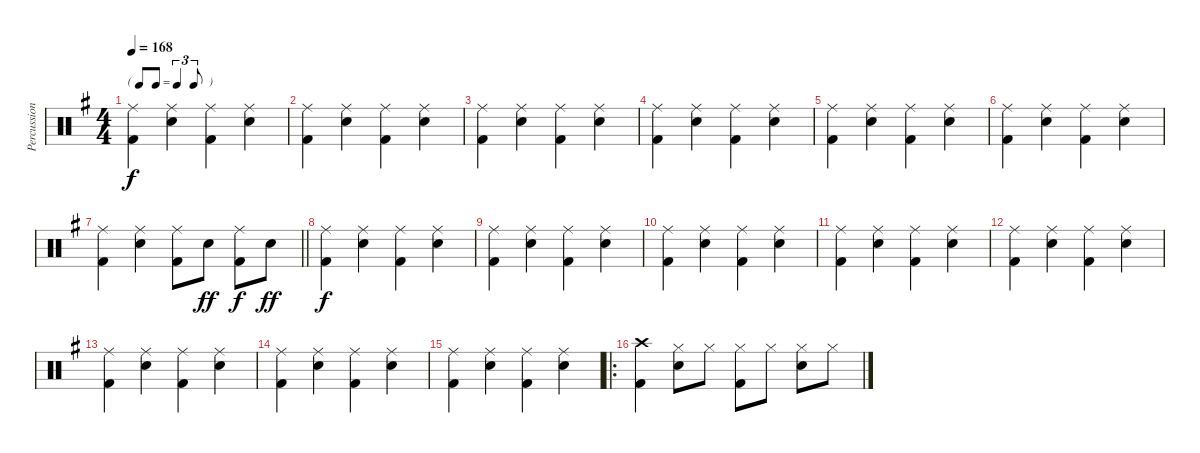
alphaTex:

\track ("Percussion" "Percussion") {instrument percussion}
\staff {score}
\articulation defaults
\ts (4 4)
\tf triplet8th
\tempo 168
\clef neutral
\ks g
("Ride (middle)" "Kick (hit) 2").4{dy f} ("Ride (middle)" "Snare (hit) 2").4 ("Ride (middle)" "Kick (hit) 2").4 ("Ride (middle)" "Snare (hit) 2").4 |
("Ride (middle)" "Kick (hit) 2").4 ("Ride (middle)" "Snare (hit) 2").4 ("Ride (middle)" "Kick (hit) 2").4 ("Ride (middle)" "Snare (hit) 2").4 |
("Ride (middle)" "Kick (hit) 2").4 ("Ride (middle)" "Snare (hit) 2").4 ("Ride (middle)" "Kick (hit) 2").4 ("Ride (middle)" "Snare (hit) 2").4 |
("Ride (middle)" "Kick (hit) 2").4 ("Ride (middle)" "Snare (hit) 2").4 ("Ride (middle)" "Kick (hit) 2").4 ("Ride (middle)" "Snare (hit) 2").4 |
("Ride (middle)" "Kick (hit) 2").4 ("Ride (middle)" "Snare (hit) 2").4 ("Ride (middle)" "Kick (hit) 2").4 ("Ride (middle)" "Snare (hit) 2").4 |
("Ride (middle)" "Kick (hit) 2").4 ("Ride (middle)" "Snare (hit) 2").4 ("Ride (middle)" "Kick (hit) 2").4 ("Ride (middle)" "Snare (hit) 2").4 |
\barLineRight lightlight
("Ride (middle)" "Kick (hit) 2").4 ("Ride (middle)" "Snare (hit) 2").4 ("Ride (middle)" "Kick (hit) 2").8 "Snare (hit) 2".8{dy ff} ("Ride (middle)" "Kick (hit) 2").8{dy f} "Snare (hit) 2".8{dy ff} |
("Ride (middle)" "Kick (hit) 2").4{dy f} ("Ride (middle)" "Snare (hit) 2").4 ("Ride (middle)" "Kick (hit) 2").4 ("Ride (middle)" "Snare (hit) 2").4 |
("Ride (middle)" "Kick (hit) 2").4 ("Ride (middle)" "Snare (hit) 2").4 ("Ride (middle)" "Kick (hit) 2").4 ("Ride (middle)" "Snare (hit) 2").4 |
("Ride (middle)" "Kick (hit) 2").4 ("Ride (middle)" "Snare (hit) 2").4 ("Ride (middle)" "Kick (hit) 2").4 ("Ride (middle)" "Snare (hit) 2").4 |
("Ride (middle)" "Kick (hit) 2").4 ("Ride (middle)" "Snare (hit) 2").4 ("Ride (middle)" "Kick (hit) 2").4 ("Ride (middle)" "Snare (hit) 2").4 |
("Ride (middle)" "Kick (hit) 2").4 ("Ride (middle)" "Snare (hit) 2").4 ("Ride (middle)" "Kick (hit) 2").4 ("Ride (middle)" "Snare (hit) 2").4 |
("Ride (middle)" "Kick (hit) 2").4 ("Ride (middle)" "Snare (hit) 2").4 ("Ride (middle)" "Kick (hit) 2").4 ("Ride (middle)" "Snare (hit) 2").4 |
("Ride (middle)" "Kick (hit) 2").4 ("Ride (middle)" "Snare (hit) 2").4 ("Ride (middle)" "Kick (hit) 2").4 ("Ride (middle)" "Snare (hit) 2").4 |
("Ride (middle)" "Kick (hit) 2").4 ("Ride (middle)" "Snare (hit) 2").4 ("Ride (middle)" "Kick (hit) 2").4 ("Ride (middle)" "Snare (hit) 2").4 |
\ro
("Crash high (hit)" "Kick (hit) 2").4 ("Hi-Hat (closed)" "Snare (hit) 2").8 "Hi-Hat (closed)".8 ("Hi-Hat (closed)" "Kick (hit) 2").8 "Hi-Hat (closed)".8 ("Hi-Hat (closed)" "Snare (hit) 2").8 "Hi-Hat (closed)".8
